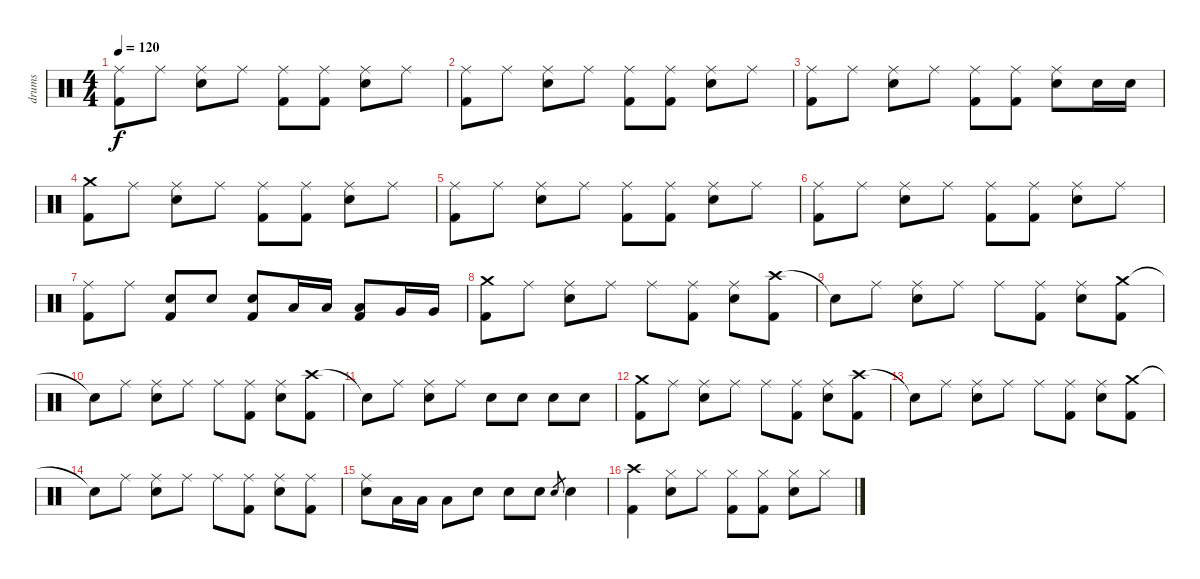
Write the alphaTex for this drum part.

\track ("drums" "drums") {instrument percussion}
\staff {score}
\articulation defaults
\ts (4 4)
\tempo 120
\clef neutral
\ks c
("Ride (middle)" "Kick (hit) 2").8{dy f} "Ride (middle)".8 ("Ride (middle)" "Electric Snare (hit)").8 "Ride (middle)".8 ("Ride (middle)" "Kick (hit) 2").8 ("Ride (middle)" "Kick (hit) 2").8 ("Ride (middle)" "Electric Snare (hit)").8 "Ride (middle)".8 |
("Ride (middle)" "Kick (hit) 2").8 "Ride (middle)".8 ("Ride (middle)" "Electric Snare (hit)").8 "Ride (middle)".8 ("Ride (middle)" "Kick (hit) 2").8 ("Ride (middle)" "Kick (hit) 2").8 ("Ride (middle)" "Electric Snare (hit)").8 "Ride (middle)".8 |
("Ride (middle)" "Kick (hit) 2").8 "Ride (middle)".8 ("Ride (middle)" "Electric Snare (hit)").8 "Ride (middle)".8 ("Ride (middle)" "Kick (hit) 2").8 ("Ride (middle)" "Kick (hit) 2").8 ("Ride (middle)" "Electric Snare (hit)").8 "Electric Snare (hit)".16 "Electric Snare (hit)".16 |
("Crash medium (hit)" "Kick (hit) 2").8 "Ride (middle)".8 ("Ride (middle)" "Electric Snare (hit)").8 "Ride (middle)".8 ("Ride (middle)" "Kick (hit) 2").8 ("Ride (middle)" "Kick (hit) 2").8 ("Ride (middle)" "Electric Snare (hit)").8 "Ride (middle)".8 |
("Ride (middle)" "Kick (hit) 2").8 "Ride (middle)".8 ("Ride (middle)" "Electric Snare (hit)").8 "Ride (middle)".8 ("Ride (middle)" "Kick (hit) 2").8 ("Ride (middle)" "Kick (hit) 2").8 ("Ride (middle)" "Electric Snare (hit)").8 "Ride (middle)".8 |
("Ride (middle)" "Kick (hit) 2").8 "Ride (middle)".8 ("Ride (middle)" "Electric Snare (hit)").8 "Ride (middle)".8 ("Ride (middle)" "Kick (hit) 2").8 ("Ride (middle)" "Kick (hit) 2").8 ("Ride (middle)" "Electric Snare (hit)").8 "Ride (middle)".8 |
("Ride (middle)" "Kick (hit) 2").8 "Ride (middle)".8 ("Electric Snare (hit)" "Kick (hit) 2").8 "Electric Snare (hit)".8 ("Electric Snare (hit)" "Kick (hit) 2").8 "Low Tom (hit)".16 "Low Tom (hit)".16 ("Low Tom (hit)" "Kick (hit) 2").8 "Very Low Tom (hit)".16 "Very Low Tom (hit)".16 |
("Crash medium (hit)" "Kick (hit) 2").8 "Ride (middle)".8 ("Ride (middle)" "Electric Snare (hit)").8 "Ride (middle)".8 "Ride (middle)".8 ("Ride (middle)" "Kick (hit) 2").8 ("Ride (middle)" "Electric Snare (hit)").8 ("Crash high (hit)" "Kick (hit) 2").8 |
"Snare (hit)"{t}.8 "Ride (middle)".8 ("Ride (middle)" "Electric Snare (hit)").8 "Ride (middle)".8 "Ride (middle)".8 ("Ride (middle)" "Kick (hit) 2").8 ("Ride (middle)" "Electric Snare (hit)").8 ("Crash medium (hit)" "Kick (hit) 2").8 |
"Snare (hit)"{t}.8 "Ride (middle)".8 ("Ride (middle)" "Electric Snare (hit)").8 "Ride (middle)".8 "Ride (middle)".8 ("Ride (middle)" "Kick (hit) 2").8 ("Ride (middle)" "Electric Snare (hit)").8 ("Crash high (hit)" "Kick (hit) 2").8 |
"Snare (hit)"{t}.8 "Ride (middle)".8 ("Ride (middle)" "Electric Snare (hit)").8 "Ride (middle)".8 "Electric Snare (hit)".8 "Electric Snare (hit)".8 "Electric Snare (hit)".8 "Electric Snare (hit)".8 |
("Crash medium (hit)" "Kick (hit) 2").8 "Ride (middle)".8 ("Ride (middle)" "Electric Snare (hit)").8 "Ride (middle)".8 "Ride (middle)".8 ("Ride (middle)" "Kick (hit) 2").8 ("Ride (middle)" "Electric Snare (hit)").8 ("Crash high (hit)" "Kick (hit) 2").8 |
"Snare (hit)"{t}.8 "Ride (middle)".8 ("Ride (middle)" "Electric Snare (hit)").8 "Ride (middle)".8 "Ride (middle)".8 ("Ride (middle)" "Kick (hit) 2").8 ("Ride (middle)" "Electric Snare (hit)").8 ("Crash medium (hit)" "Kick (hit) 2").8 |
"Snare (hit)"{t}.8 "Ride (middle)".8 ("Ride (middle)" "Electric Snare (hit)").8 "Ride (middle)".8 "Ride (middle)".8 ("Ride (middle)" "Kick (hit) 2").8 ("Ride (middle)" "Electric Snare (hit)").8 ("Ride (middle)" "Kick (hit) 2").8 |
("Ride (middle)" "Electric Snare (hit)").8 "Low Tom (hit)".16 "Low Tom (hit)".16 "Low Tom (hit)".8 "Electric Snare (hit)".8 "Electric Snare (hit)".8 "Electric Snare (hit)".8 "Electric Snare (hit)".8{gr} "Electric Snare (hit)".4 |
("Crash high (hit)" "Kick (hit) 2").4 ("Hi-Hat (closed)" "Electric Snare (hit)").8 "Hi-Hat (closed)".8 ("Hi-Hat (closed)" "Kick (hit) 2").8 ("Hi-Hat (closed)" "Kick (hit) 2").8 ("Hi-Hat (closed)" "Electric Snare (hit)").8 "Hi-Hat (closed)".8
